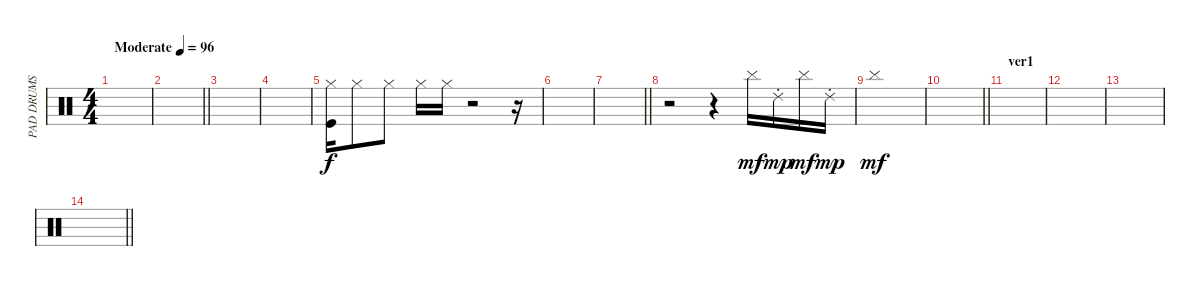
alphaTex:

\track ("PAD DRUMS" "PAD DRUMS") {instrument percussion}
\staff {score}
\articulation defaults
\ts (4 4)
\tempo (96 "Moderate")
\clef neutral
\ks c
|
\barLineRight lightlight
|
|
|
("Hi-Hat (closed)" "Kick (hit)").16 "Hi-Hat (closed)".8 "Hi-Hat (closed)".8 "Hi-Hat (closed)".16 "Hi-Hat (closed)".16 r.2 r.16 |
|
\barLineRight lightlight
|
r.2 r.4 "Cymbal (hit)".16{dy mf} "Ride (choke) 2".16{dy mp} "Cymbal (hit)".16{dy mf} "Ride (choke) 2".16{dy mp} |
"Cymbal (hit)".1{dy mf} |
\barLineRight lightlight
|
\section ("" "ver1")
|
|
|
\barLineRight lightlight
